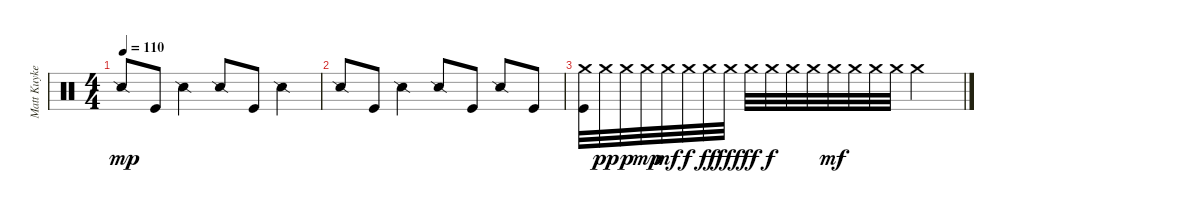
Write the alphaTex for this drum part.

\track ("Matt Kuykendall" "Matt Kuyke") {instrument percussion}
\staff {score}
\articulation defaults
\ts (4 4)
\tempo 110
\clef neutral
\ks c "Snare (side stick) 2".8{dy mp} "Kick (hit)".8 "Snare (side stick) 2".4 "Snare (side stick) 2".8 "Kick (hit)".8 "Snare (side stick) 2".4
|
"Snare (side stick) 2".8 "Kick (hit)".8 "Snare (side stick) 2".4 "Snare (side stick) 2".8 "Kick (hit)".8 "Snare (side stick) 2".8 "Kick (hit)".8 |
("Crash medium (hit)" "Kick (hit)").32 "Crash medium (hit)".32{dy pp} "Crash medium (hit)".32{dy p} "Crash medium (hit)".32{dy mp} "Crash medium (hit)".32{dy mf} "Crash medium (hit)".32{dy f} "Crash medium (hit)".32{dy ff} "Crash medium (hit)".32{dy fff} "Crash medium (hit)".32{dy ff} "Crash medium (hit)".32{dy f} "Crash medium (hit)".32 "Crash medium (hit)".32 "Crash medium (hit)".32{dy mf} "Crash medium (hit)".32 "Crash medium (hit)".32 "Crash medium (hit)".32 "Crash medium (hit)".2
